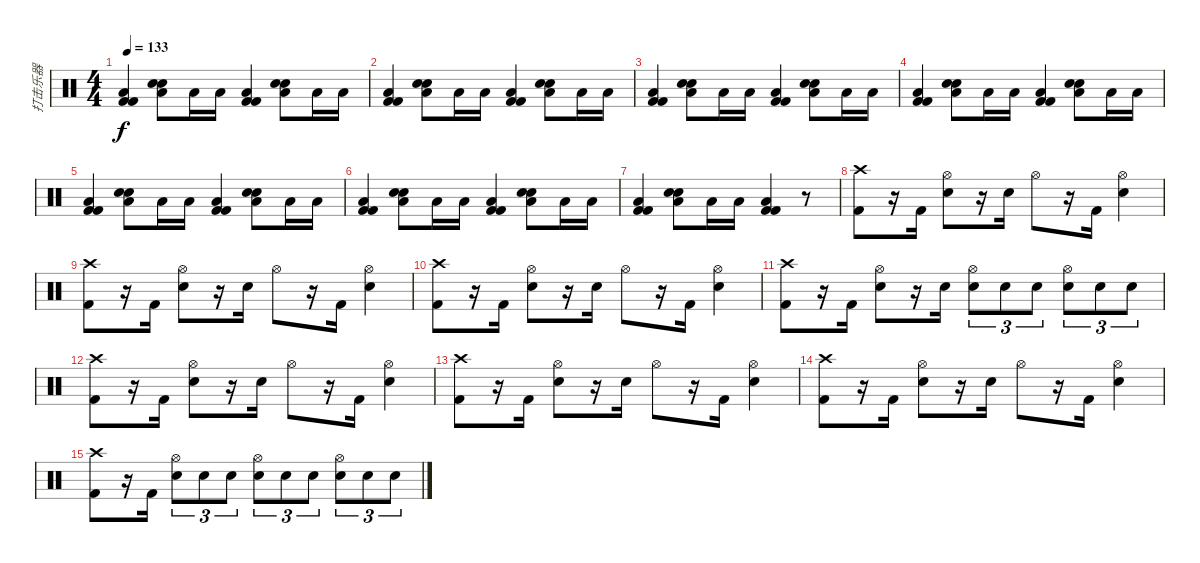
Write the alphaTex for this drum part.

\track ("打击乐器" "打击乐器") {instrument percussion}
\staff {score}
\articulation defaults
\ts (4 4)
\tempo 133
\clef neutral
\ks c
("Low Tom (hit)" "Kick (hit) 2" "Kick (hit) 2").4{dy f} ("Low Tom (hit)" "Electric Snare (hit)" "Electric Snare (hit)").8 "Low Tom (hit)".16 "Low Tom (hit)".16 ("Low Tom (hit)" "Kick (hit) 2" "Kick (hit) 2").4 ("Low Tom (hit)" "Electric Snare (hit)" "Electric Snare (hit)").8 "Low Tom (hit)".16 "Low Tom (hit)".16 |
("Low Tom (hit)" "Kick (hit) 2" "Kick (hit) 2").4 ("Low Tom (hit)" "Electric Snare (hit)" "Electric Snare (hit)").8 "Low Tom (hit)".16 "Low Tom (hit)".16 ("Low Tom (hit)" "Kick (hit) 2" "Kick (hit) 2").4 ("Low Tom (hit)" "Electric Snare (hit)" "Electric Snare (hit)").8 "Low Tom (hit)".16 "Low Tom (hit)".16 |
("Low Tom (hit)" "Kick (hit) 2" "Kick (hit) 2").4 ("Low Tom (hit)" "Electric Snare (hit)" "Electric Snare (hit)").8 "Low Tom (hit)".16 "Low Tom (hit)".16 ("Low Tom (hit)" "Kick (hit) 2" "Kick (hit) 2").4 ("Low Tom (hit)" "Electric Snare (hit)" "Electric Snare (hit)").8 "Low Tom (hit)".16 "Low Tom (hit)".16 |
("Low Tom (hit)" "Kick (hit) 2" "Kick (hit) 2").4 ("Low Tom (hit)" "Electric Snare (hit)" "Electric Snare (hit)").8 "Low Tom (hit)".16 "Low Tom (hit)".16 ("Low Tom (hit)" "Kick (hit) 2" "Kick (hit) 2").4 ("Low Tom (hit)" "Electric Snare (hit)" "Electric Snare (hit)").8 "Low Tom (hit)".16 "Low Tom (hit)".16 |
("Low Tom (hit)" "Kick (hit) 2" "Kick (hit) 2").4 ("Low Tom (hit)" "Electric Snare (hit)" "Electric Snare (hit)").8 "Low Tom (hit)".16 "Low Tom (hit)".16 ("Low Tom (hit)" "Kick (hit) 2" "Kick (hit) 2").4 ("Low Tom (hit)" "Electric Snare (hit)" "Electric Snare (hit)").8 "Low Tom (hit)".16 "Low Tom (hit)".16 |
("Low Tom (hit)" "Kick (hit) 2" "Kick (hit) 2").4 ("Low Tom (hit)" "Electric Snare (hit)" "Electric Snare (hit)").8 "Low Tom (hit)".16 "Low Tom (hit)".16 ("Low Tom (hit)" "Kick (hit) 2" "Kick (hit) 2").4 ("Low Tom (hit)" "Electric Snare (hit)" "Electric Snare (hit)").8 "Low Tom (hit)".16 "Low Tom (hit)".16 |
("Low Tom (hit)" "Kick (hit) 2" "Kick (hit) 2").4 ("Low Tom (hit)" "Electric Snare (hit)" "Electric Snare (hit)").8 "Low Tom (hit)".16 "Low Tom (hit)".16 ("Low Tom (hit)" "Kick (hit) 2" "Kick (hit) 2").4 r.8 |
("Crash high (hit)" "Kick (hit) 2").8 r.16 "Kick (hit) 2".16 ("Hi-Hat (open)" "Electric Snare (hit)").8 r.16 "Electric Snare (hit)".16 "Hi-Hat (open)".8 r.16 "Kick (hit) 2".16 ("Hi-Hat (open)" "Electric Snare (hit)").4 |
("Crash high (hit)" "Kick (hit) 2").8 r.16 "Kick (hit) 2".16 ("Hi-Hat (open)" "Electric Snare (hit)").8 r.16 "Electric Snare (hit)".16 "Hi-Hat (open)".8 r.16 "Kick (hit) 2".16 ("Hi-Hat (open)" "Electric Snare (hit)").4 |
("Crash high (hit)" "Kick (hit) 2").8 r.16 "Kick (hit) 2".16 ("Hi-Hat (open)" "Electric Snare (hit)").8 r.16 "Electric Snare (hit)".16 "Hi-Hat (open)".8 r.16 "Kick (hit) 2".16 ("Hi-Hat (open)" "Electric Snare (hit)").4 |
("Crash high (hit)" "Kick (hit) 2").8 r.16 "Kick (hit) 2".16 ("Hi-Hat (open)" "Electric Snare (hit)").8 r.16 "Electric Snare (hit)".16 ("Hi-Hat (open)" "Electric Snare (hit)").8{tu (3 2)} "Electric Snare (hit)".8{tu (3 2)} "Electric Snare (hit)".8{tu (3 2)} ("Hi-Hat (open)" "Electric Snare (hit)").8{tu (3 2)} "Electric Snare (hit)".8{tu (3 2)} "Electric Snare (hit)".8{tu (3 2)} |
("Crash high (hit)" "Kick (hit) 2").8 r.16 "Kick (hit) 2".16 ("Hi-Hat (open)" "Electric Snare (hit)").8 r.16 "Electric Snare (hit)".16 "Hi-Hat (open)".8 r.16 "Kick (hit) 2".16 ("Hi-Hat (open)" "Electric Snare (hit)").4 |
("Crash high (hit)" "Kick (hit) 2").8 r.16 "Kick (hit) 2".16 ("Hi-Hat (open)" "Electric Snare (hit)").8 r.16 "Electric Snare (hit)".16 "Hi-Hat (open)".8 r.16 "Kick (hit) 2".16 ("Hi-Hat (open)" "Electric Snare (hit)").4 |
("Crash high (hit)" "Kick (hit) 2").8 r.16 "Kick (hit) 2".16 ("Hi-Hat (open)" "Electric Snare (hit)").8 r.16 "Electric Snare (hit)".16 "Hi-Hat (open)".8 r.16 "Kick (hit) 2".16 ("Hi-Hat (open)" "Electric Snare (hit)").4 |
("Crash high (hit)" "Kick (hit) 2").8 r.16 "Kick (hit) 2".16 ("Hi-Hat (open)" "Electric Snare (hit)").8{tu (3 2)} "Electric Snare (hit)".8{tu (3 2)} "Electric Snare (hit)".8{tu (3 2)} ("Hi-Hat (open)" "Electric Snare (hit)").8{tu (3 2)} "Electric Snare (hit)".8{tu (3 2)} "Electric Snare (hit)".8{tu (3 2)} ("Hi-Hat (open)" "Electric Snare (hit)").8{tu (3 2)} "Electric Snare (hit)".8{tu (3 2)} "Electric Snare (hit)".8{tu (3 2)}
